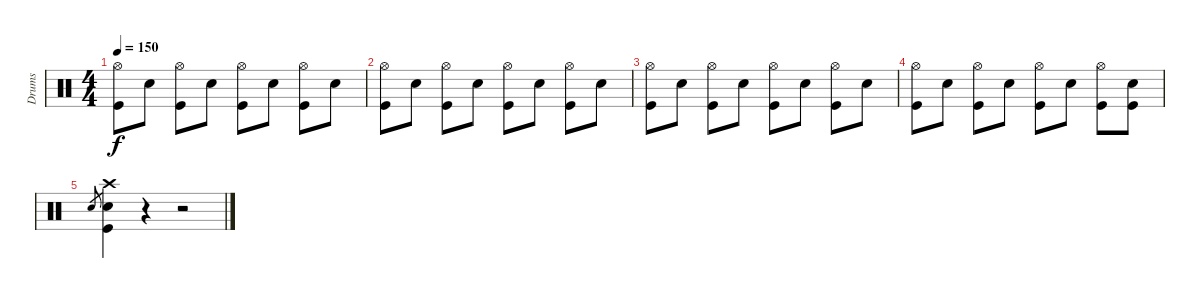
\track ("Drums" "Drums") {instrument percussion}
\staff {score}
\articulation defaults
\ts (4 4)
\tempo 150
\clef neutral
\ks c
("Hi-Hat (open)" "Kick (hit)").8{dy f} "Electric Snare (hit)".8 ("Hi-Hat (open)" "Kick (hit)").8 "Electric Snare (hit)".8 ("Hi-Hat (open)" "Kick (hit)").8 "Electric Snare (hit)".8 ("Hi-Hat (open)" "Kick (hit)").8 "Electric Snare (hit)".8 |
("Hi-Hat (open)" "Kick (hit)").8 "Electric Snare (hit)".8 ("Hi-Hat (open)" "Kick (hit)").8 "Electric Snare (hit)".8 ("Hi-Hat (open)" "Kick (hit)").8 "Electric Snare (hit)".8 ("Hi-Hat (open)" "Kick (hit)").8 "Electric Snare (hit)".8 |
("Hi-Hat (open)" "Kick (hit)").8 "Electric Snare (hit)".8 ("Hi-Hat (open)" "Kick (hit)").8 "Electric Snare (hit)".8 ("Hi-Hat (open)" "Kick (hit)").8 "Electric Snare (hit)".8 ("Hi-Hat (open)" "Kick (hit)").8 "Electric Snare (hit)".8 |
("Hi-Hat (open)" "Kick (hit)").8 "Electric Snare (hit)".8 ("Hi-Hat (open)" "Kick (hit)").8 "Electric Snare (hit)".8 ("Hi-Hat (open)" "Kick (hit)").8 "Electric Snare (hit)".8 ("Hi-Hat (open)" "Kick (hit)").8 ("Electric Snare (hit)" "Kick (hit)").8 |
"Electric Snare (hit)".8{gr} ("Electric Snare (hit)" "Crash high (hit)" "Kick (hit)").4 r.4 r.2
